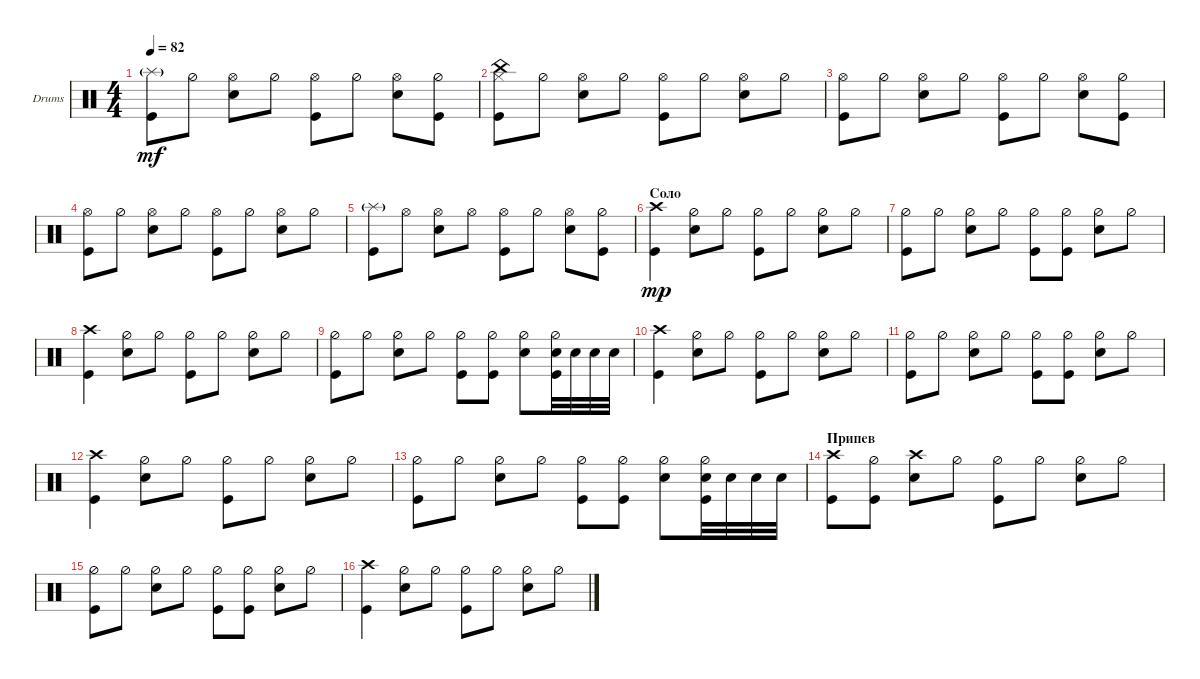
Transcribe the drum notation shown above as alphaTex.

\defaultSystemsLayout 4
\bracketExtendMode groupsimilarinstruments
\firstSystemTrackNameOrientation horizontal
\otherSystemsTrackNameOrientation horizontal
\track ("Drumkit" "Drums") {instrument percussion}
\staff {score}
\articulation defaults
\ts (4 4)
\tempo 82
\clef neutral
\ks c
("Kick (hit)" "Splash (hit)"{g}).8{dy mf} "Hi-Hat (half)".8 ("Hi-Hat (open)" "Snare (hit) 2").8 "Hi-Hat (half)".8 ("Hi-Hat (open)" "Kick (hit)").8 "Hi-Hat (half)".8 ("Hi-Hat (open)" "Snare (hit) 2").8 ("Hi-Hat (half)" "Kick (hit)").8 |
("Hi-Hat (closed)" "Kick (hit)" "China (hit)").8 "Hi-Hat (half)".8 ("Hi-Hat (open)" "Snare (hit) 2").8 "Hi-Hat (half)".8 ("Hi-Hat (open)" "Kick (hit)").8 "Hi-Hat (half)".8 ("Hi-Hat (open)" "Snare (hit) 2").8 "Hi-Hat (half)".8 |
("Hi-Hat (open)" "Kick (hit)").8 "Hi-Hat (half)".8 ("Hi-Hat (open)" "Snare (hit) 2").8 "Hi-Hat (half)".8 ("Hi-Hat (open)" "Kick (hit)").8 "Hi-Hat (half)".8 ("Hi-Hat (open)" "Snare (hit) 2").8 ("Hi-Hat (half)" "Kick (hit)").8 |
("Hi-Hat (open)" "Kick (hit)").8 "Hi-Hat (half)".8 ("Hi-Hat (open)" "Snare (hit) 2").8 "Hi-Hat (half)".8 ("Hi-Hat (open)" "Kick (hit)").8 "Hi-Hat (half)".8 ("Hi-Hat (open)" "Snare (hit) 2").8 "Hi-Hat (half)".8 |
("Kick (hit)" "Splash (hit)"{g}).8 "Hi-Hat (open)".8 ("Hi-Hat (open)" "Snare (hit) 2").8 "Hi-Hat (open)".8 ("Hi-Hat (open)" "Kick (hit)").8 "Hi-Hat (half)".8 ("Hi-Hat (open)" "Snare (hit) 2").8 ("Hi-Hat (half)" "Kick (hit)").8 |
\section ("" "Соло")
("Kick (hit)" "Crash high (hit)").4{dy mp} ("Snare (hit) 2" "Hi-Hat (half)").8 "Hi-Hat (half)".8 ("Kick (hit)" "Hi-Hat (half)").8 "Hi-Hat (half)".8 ("Snare (hit) 2" "Hi-Hat (half)").8 "Hi-Hat (half)".8 |
("Kick (hit)" "Hi-Hat (half)").8 "Hi-Hat (half)".8 ("Snare (hit) 2" "Hi-Hat (half)").8 "Hi-Hat (half)".8 ("Kick (hit)" "Hi-Hat (half)").8 ("Kick (hit)" "Hi-Hat (half)").8 ("Snare (hit) 2" "Hi-Hat (half)").8 "Hi-Hat (half)".8 |
("Kick (hit)" "Crash high (hit)").4 ("Snare (hit) 2" "Hi-Hat (half)").8 "Hi-Hat (half)".8 ("Kick (hit)" "Hi-Hat (half)").8 "Hi-Hat (half)".8 ("Snare (hit) 2" "Hi-Hat (half)").8 "Hi-Hat (half)".8 |
("Kick (hit)" "Hi-Hat (half)").8 "Hi-Hat (half)".8 ("Snare (hit) 2" "Hi-Hat (half)").8 "Hi-Hat (half)".8 ("Kick (hit)" "Hi-Hat (half)").8 ("Kick (hit)" "Hi-Hat (half)").8 ("Snare (hit) 2" "Hi-Hat (half)").8 ("Hi-Hat (half)" "Snare (hit) 2" "Kick (hit)").32 "Snare (hit) 2".32 "Snare (hit) 2".32 "Snare (hit) 2".32 |
("Kick (hit)" "Crash high (hit)").4 ("Snare (hit) 2" "Hi-Hat (half)").8 "Hi-Hat (half)".8 ("Kick (hit)" "Hi-Hat (half)").8 "Hi-Hat (half)".8 ("Snare (hit) 2" "Hi-Hat (half)").8 "Hi-Hat (half)".8 |
("Kick (hit)" "Hi-Hat (half)").8 "Hi-Hat (half)".8 ("Snare (hit) 2" "Hi-Hat (half)").8 "Hi-Hat (half)".8 ("Kick (hit)" "Hi-Hat (half)").8 ("Kick (hit)" "Hi-Hat (half)").8 ("Snare (hit) 2" "Hi-Hat (half)").8 "Hi-Hat (half)".8 |
("Kick (hit)" "Crash high (hit)").4 ("Snare (hit) 2" "Hi-Hat (half)").8 "Hi-Hat (half)".8 ("Kick (hit)" "Hi-Hat (half)").8 "Hi-Hat (half)".8 ("Snare (hit) 2" "Hi-Hat (half)").8 "Hi-Hat (half)".8 |
("Kick (hit)" "Hi-Hat (half)").8 "Hi-Hat (half)".8 ("Snare (hit) 2" "Hi-Hat (half)").8 "Hi-Hat (half)".8 ("Kick (hit)" "Hi-Hat (half)").8 ("Kick (hit)" "Hi-Hat (half)").8 ("Snare (hit) 2" "Hi-Hat (half)").8 ("Hi-Hat (half)" "Snare (hit) 2" "Kick (hit)").32 "Snare (hit) 2".32 "Snare (hit) 2".32 "Snare (hit) 2".32 |
\section ("" "Припев")
("Kick (hit)" "Crash high (hit)").8 ("Kick (hit)" "Hi-Hat (half)").8 ("Snare (hit) 2" "Crash high (hit)").8 "Hi-Hat (half)".8 ("Kick (hit)" "Hi-Hat (half)").8 "Hi-Hat (half)".8 ("Snare (hit) 2" "Hi-Hat (half)").8 "Hi-Hat (half)".8 |
("Kick (hit)" "Hi-Hat (half)").8 "Hi-Hat (half)".8 ("Snare (hit) 2" "Hi-Hat (half)").8 "Hi-Hat (half)".8 ("Kick (hit)" "Hi-Hat (half)").8 ("Kick (hit)" "Hi-Hat (half)").8 ("Snare (hit) 2" "Hi-Hat (half)").8 "Hi-Hat (half)".8 |
("Kick (hit)" "Crash high (hit)").4 ("Snare (hit) 2" "Hi-Hat (half)").8 "Hi-Hat (half)".8 ("Kick (hit)" "Hi-Hat (half)").8 "Hi-Hat (half)".8 ("Snare (hit) 2" "Hi-Hat (half)").8 "Hi-Hat (half)".8
